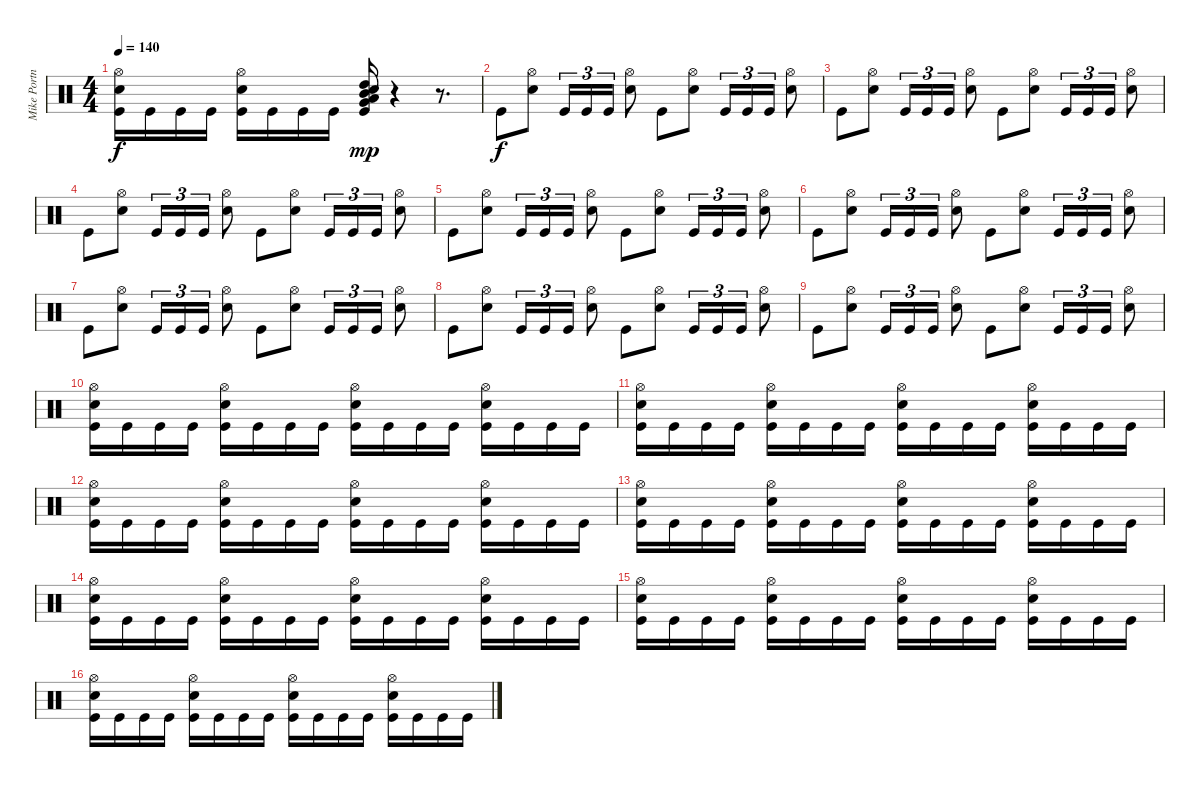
\track ("Mike Portnoy" "Mike Portn") {instrument percussion}
\staff {score}
\articulation defaults
\ts (4 4)
\tempo 140
\clef neutral
\ks c
("Hi-Hat (open)" "Kick (hit)" "Electric Snare (hit)").16{dy f} "Kick (hit)".16 "Kick (hit)".16 "Kick (hit)".16 ("Hi-Hat (open)" "Kick (hit)" "Electric Snare (hit)").16 "Kick (hit)".16 "Kick (hit)".16 "Kick (hit)".16 ("Very Low Tom (hit)" "Low Tom (hit)" "Kick (hit)" "Electric Snare (hit)" "High Tom (hit)" "Mid Tom (hit)").16{dy mp} r.4 r.8{d} |
"Kick (hit)".8{dy f} ("Hi-Hat (open)" "Electric Snare (hit)").8 "Kick (hit)".16{tu (3 2)} "Kick (hit)".16{tu (3 2)} "Kick (hit)".16{tu (3 2)} ("Hi-Hat (open)" "Electric Snare (hit)").8 "Kick (hit)".8 ("Hi-Hat (open)" "Electric Snare (hit)").8 "Kick (hit)".16{tu (3 2)} "Kick (hit)".16{tu (3 2)} "Kick (hit)".16{tu (3 2)} ("Hi-Hat (open)" "Electric Snare (hit)").8 |
"Kick (hit)".8 ("Hi-Hat (open)" "Electric Snare (hit)").8 "Kick (hit)".16{tu (3 2)} "Kick (hit)".16{tu (3 2)} "Kick (hit)".16{tu (3 2)} ("Hi-Hat (open)" "Electric Snare (hit)").8 "Kick (hit)".8 ("Hi-Hat (open)" "Electric Snare (hit)").8 "Kick (hit)".16{tu (3 2)} "Kick (hit)".16{tu (3 2)} "Kick (hit)".16{tu (3 2)} ("Hi-Hat (open)" "Electric Snare (hit)").8 |
"Kick (hit)".8 ("Hi-Hat (open)" "Electric Snare (hit)").8 "Kick (hit)".16{tu (3 2)} "Kick (hit)".16{tu (3 2)} "Kick (hit)".16{tu (3 2)} ("Hi-Hat (open)" "Electric Snare (hit)").8 "Kick (hit)".8 ("Hi-Hat (open)" "Electric Snare (hit)").8 "Kick (hit)".16{tu (3 2)} "Kick (hit)".16{tu (3 2)} "Kick (hit)".16{tu (3 2)} ("Hi-Hat (open)" "Electric Snare (hit)").8 |
"Kick (hit)".8 ("Hi-Hat (open)" "Electric Snare (hit)").8 "Kick (hit)".16{tu (3 2)} "Kick (hit)".16{tu (3 2)} "Kick (hit)".16{tu (3 2)} ("Hi-Hat (open)" "Electric Snare (hit)").8 "Kick (hit)".8 ("Hi-Hat (open)" "Electric Snare (hit)").8 "Kick (hit)".16{tu (3 2)} "Kick (hit)".16{tu (3 2)} "Kick (hit)".16{tu (3 2)} ("Hi-Hat (open)" "Electric Snare (hit)").8 |
"Kick (hit)".8 ("Hi-Hat (open)" "Electric Snare (hit)").8 "Kick (hit)".16{tu (3 2)} "Kick (hit)".16{tu (3 2)} "Kick (hit)".16{tu (3 2)} ("Hi-Hat (open)" "Electric Snare (hit)").8 "Kick (hit)".8 ("Hi-Hat (open)" "Electric Snare (hit)").8 "Kick (hit)".16{tu (3 2)} "Kick (hit)".16{tu (3 2)} "Kick (hit)".16{tu (3 2)} ("Hi-Hat (open)" "Electric Snare (hit)").8 |
"Kick (hit)".8 ("Hi-Hat (open)" "Electric Snare (hit)").8 "Kick (hit)".16{tu (3 2)} "Kick (hit)".16{tu (3 2)} "Kick (hit)".16{tu (3 2)} ("Hi-Hat (open)" "Electric Snare (hit)").8 "Kick (hit)".8 ("Hi-Hat (open)" "Electric Snare (hit)").8 "Kick (hit)".16{tu (3 2)} "Kick (hit)".16{tu (3 2)} "Kick (hit)".16{tu (3 2)} ("Hi-Hat (open)" "Electric Snare (hit)").8 |
"Kick (hit)".8 ("Hi-Hat (open)" "Electric Snare (hit)").8 "Kick (hit)".16{tu (3 2)} "Kick (hit)".16{tu (3 2)} "Kick (hit)".16{tu (3 2)} ("Hi-Hat (open)" "Electric Snare (hit)").8 "Kick (hit)".8 ("Hi-Hat (open)" "Electric Snare (hit)").8 "Kick (hit)".16{tu (3 2)} "Kick (hit)".16{tu (3 2)} "Kick (hit)".16{tu (3 2)} ("Hi-Hat (open)" "Electric Snare (hit)").8 |
"Kick (hit)".8 ("Hi-Hat (open)" "Electric Snare (hit)").8 "Kick (hit)".16{tu (3 2)} "Kick (hit)".16{tu (3 2)} "Kick (hit)".16{tu (3 2)} ("Hi-Hat (open)" "Electric Snare (hit)").8 "Kick (hit)".8 ("Hi-Hat (open)" "Electric Snare (hit)").8 "Kick (hit)".16{tu (3 2)} "Kick (hit)".16{tu (3 2)} "Kick (hit)".16{tu (3 2)} ("Hi-Hat (open)" "Electric Snare (hit)").8 |
("Hi-Hat (open)" "Kick (hit)" "Electric Snare (hit)").16 "Kick (hit)".16 "Kick (hit)".16 "Kick (hit)".16 ("Hi-Hat (open)" "Kick (hit)" "Electric Snare (hit)").16 "Kick (hit)".16 "Kick (hit)".16 "Kick (hit)".16 ("Hi-Hat (open)" "Kick (hit)" "Electric Snare (hit)").16 "Kick (hit)".16 "Kick (hit)".16 "Kick (hit)".16 ("Hi-Hat (open)" "Kick (hit)" "Electric Snare (hit)").16 "Kick (hit)".16 "Kick (hit)".16 "Kick (hit)".16 |
("Hi-Hat (open)" "Kick (hit)" "Electric Snare (hit)").16 "Kick (hit)".16 "Kick (hit)".16 "Kick (hit)".16 ("Hi-Hat (open)" "Kick (hit)" "Electric Snare (hit)").16 "Kick (hit)".16 "Kick (hit)".16 "Kick (hit)".16 ("Hi-Hat (open)" "Kick (hit)" "Electric Snare (hit)").16 "Kick (hit)".16 "Kick (hit)".16 "Kick (hit)".16 ("Hi-Hat (open)" "Kick (hit)" "Electric Snare (hit)").16 "Kick (hit)".16 "Kick (hit)".16 "Kick (hit)".16 |
("Hi-Hat (open)" "Kick (hit)" "Electric Snare (hit)").16 "Kick (hit)".16 "Kick (hit)".16 "Kick (hit)".16 ("Hi-Hat (open)" "Kick (hit)" "Electric Snare (hit)").16 "Kick (hit)".16 "Kick (hit)".16 "Kick (hit)".16 ("Hi-Hat (open)" "Kick (hit)" "Electric Snare (hit)").16 "Kick (hit)".16 "Kick (hit)".16 "Kick (hit)".16 ("Hi-Hat (open)" "Kick (hit)" "Electric Snare (hit)").16 "Kick (hit)".16 "Kick (hit)".16 "Kick (hit)".16 |
("Hi-Hat (open)" "Kick (hit)" "Electric Snare (hit)").16 "Kick (hit)".16 "Kick (hit)".16 "Kick (hit)".16 ("Hi-Hat (open)" "Kick (hit)" "Electric Snare (hit)").16 "Kick (hit)".16 "Kick (hit)".16 "Kick (hit)".16 ("Hi-Hat (open)" "Kick (hit)" "Electric Snare (hit)").16 "Kick (hit)".16 "Kick (hit)".16 "Kick (hit)".16 ("Hi-Hat (open)" "Kick (hit)" "Electric Snare (hit)").16 "Kick (hit)".16 "Kick (hit)".16 "Kick (hit)".16 |
("Hi-Hat (open)" "Kick (hit)" "Electric Snare (hit)").16 "Kick (hit)".16 "Kick (hit)".16 "Kick (hit)".16 ("Hi-Hat (open)" "Kick (hit)" "Electric Snare (hit)").16 "Kick (hit)".16 "Kick (hit)".16 "Kick (hit)".16 ("Hi-Hat (open)" "Kick (hit)" "Electric Snare (hit)").16 "Kick (hit)".16 "Kick (hit)".16 "Kick (hit)".16 ("Hi-Hat (open)" "Kick (hit)" "Electric Snare (hit)").16 "Kick (hit)".16 "Kick (hit)".16 "Kick (hit)".16 |
("Hi-Hat (open)" "Kick (hit)" "Electric Snare (hit)").16 "Kick (hit)".16 "Kick (hit)".16 "Kick (hit)".16 ("Hi-Hat (open)" "Kick (hit)" "Electric Snare (hit)").16 "Kick (hit)".16 "Kick (hit)".16 "Kick (hit)".16 ("Hi-Hat (open)" "Kick (hit)" "Electric Snare (hit)").16 "Kick (hit)".16 "Kick (hit)".16 "Kick (hit)".16 ("Hi-Hat (open)" "Kick (hit)" "Electric Snare (hit)").16 "Kick (hit)".16 "Kick (hit)".16 "Kick (hit)".16 |
("Hi-Hat (open)" "Kick (hit)" "Electric Snare (hit)").16 "Kick (hit)".16 "Kick (hit)".16 "Kick (hit)".16 ("Hi-Hat (open)" "Kick (hit)" "Electric Snare (hit)").16 "Kick (hit)".16 "Kick (hit)".16 "Kick (hit)".16 ("Hi-Hat (open)" "Kick (hit)" "Electric Snare (hit)").16 "Kick (hit)".16 "Kick (hit)".16 "Kick (hit)".16 ("Hi-Hat (open)" "Kick (hit)" "Electric Snare (hit)").16 "Kick (hit)".16 "Kick (hit)".16 "Kick (hit)".16
